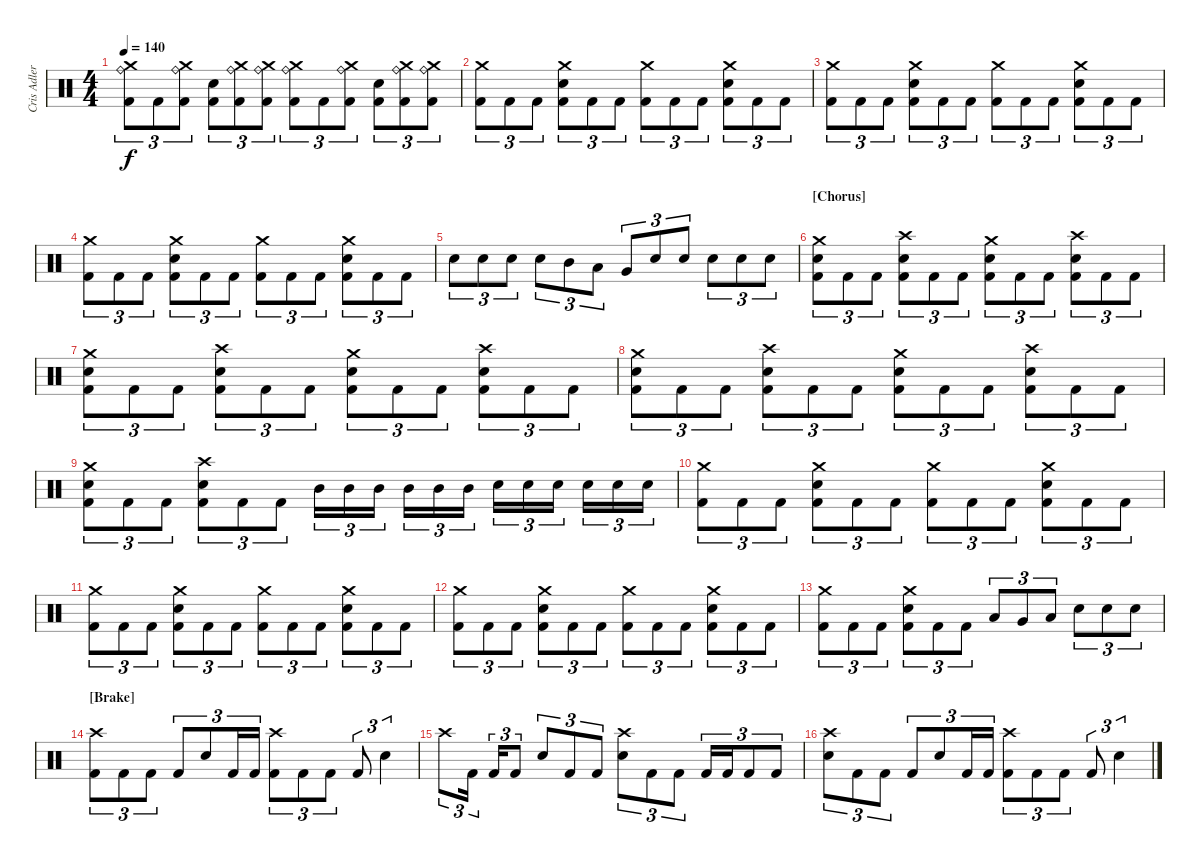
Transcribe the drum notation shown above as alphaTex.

\track ("Cris Adler" "Cris Adler") {instrument percussion}
\staff {score}
\articulation defaults
\ts (4 4)
\tempo 140
\clef neutral
\ks c
("Crash medium (hit)" "Ride (bell)" "Kick (hit) 2").8{tu (3 2) dy f} "Kick (hit) 2".8{tu (3 2)} ("Crash medium (hit)" "Ride (bell)" "Kick (hit) 2").8{tu (3 2)} ("Electric Snare (hit)" "Kick (hit) 2").8{tu (3 2)} ("Crash medium (hit)" "Ride (bell)" "Kick (hit) 2").8{tu (3 2)} ("Crash medium (hit)" "Ride (bell)" "Kick (hit) 2").8{tu (3 2)} ("Crash medium (hit)" "Ride (bell)" "Kick (hit) 2").8{tu (3 2)} "Kick (hit) 2".8{tu (3 2)} ("Crash medium (hit)" "Ride (bell)" "Kick (hit) 2").8{tu (3 2)} ("Electric Snare (hit)" "Kick (hit) 2").8{tu (3 2)} ("Crash medium (hit)" "Ride (bell)" "Kick (hit) 2").8{tu (3 2)} ("Crash medium (hit)" "Ride (bell)" "Kick (hit) 2").8{tu (3 2)} |
("Crash medium (hit)" "Kick (hit) 2").8{tu (3 2)} "Kick (hit) 2".8{tu (3 2)} "Kick (hit) 2".8{tu (3 2)} ("Crash medium (hit)" "Electric Snare (hit)" "Kick (hit) 2").8{tu (3 2)} "Kick (hit) 2".8{tu (3 2)} "Kick (hit) 2".8{tu (3 2)} ("Crash medium (hit)" "Kick (hit) 2").8{tu (3 2)} "Kick (hit) 2".8{tu (3 2)} "Kick (hit) 2".8{tu (3 2)} ("Crash medium (hit)" "Electric Snare (hit)" "Kick (hit) 2").8{tu (3 2)} "Kick (hit) 2".8{tu (3 2)} "Kick (hit) 2".8{tu (3 2)} |
("Crash medium (hit)" "Kick (hit) 2").8{tu (3 2)} "Kick (hit) 2".8{tu (3 2)} "Kick (hit) 2".8{tu (3 2)} ("Crash medium (hit)" "Electric Snare (hit)" "Kick (hit) 2").8{tu (3 2)} "Kick (hit) 2".8{tu (3 2)} "Kick (hit) 2".8{tu (3 2)} ("Crash medium (hit)" "Kick (hit) 2").8{tu (3 2)} "Kick (hit) 2".8{tu (3 2)} "Kick (hit) 2".8{tu (3 2)} ("Crash medium (hit)" "Electric Snare (hit)" "Kick (hit) 2").8{tu (3 2)} "Kick (hit) 2".8{tu (3 2)} "Kick (hit) 2".8{tu (3 2)} |
("Crash medium (hit)" "Kick (hit) 2").8{tu (3 2)} "Kick (hit) 2".8{tu (3 2)} "Kick (hit) 2".8{tu (3 2)} ("Crash medium (hit)" "Electric Snare (hit)" "Kick (hit) 2").8{tu (3 2)} "Kick (hit) 2".8{tu (3 2)} "Kick (hit) 2".8{tu (3 2)} ("Crash medium (hit)" "Kick (hit) 2").8{tu (3 2)} "Kick (hit) 2".8{tu (3 2)} "Kick (hit) 2".8{tu (3 2)} ("Crash medium (hit)" "Electric Snare (hit)" "Kick (hit) 2").8{tu (3 2)} "Kick (hit) 2".8{tu (3 2)} "Kick (hit) 2".8{tu (3 2)} |
"Electric Snare (hit)".8{tu (3 2)} "Electric Snare (hit)".8{tu (3 2)} "Electric Snare (hit)".8{tu (3 2)} "Electric Snare (hit)".8{tu (3 2)} "Mid Tom (hit)".8{tu (3 2)} "Low Tom (hit)".8{tu (3 2)} "Very Low Tom (hit)".8{tu (3 2)} "Electric Snare (hit)".8{tu (3 2)} "Electric Snare (hit)".8{tu (3 2)} "Electric Snare (hit)".8{tu (3 2)} "Electric Snare (hit)".8{tu (3 2)} "Electric Snare (hit)".8{tu (3 2)} |
\section ("" "[Chorus]")
("Crash medium (hit)" "Electric Snare (hit)" "Kick (hit) 2").8{tu (3 2)} "Kick (hit) 2".8{tu (3 2)} "Kick (hit) 2".8{tu (3 2)} ("Crash high (hit)" "Electric Snare (hit)" "Kick (hit) 2").8{tu (3 2)} "Kick (hit) 2".8{tu (3 2)} "Kick (hit) 2".8{tu (3 2)} ("Crash medium (hit)" "Electric Snare (hit)" "Kick (hit) 2").8{tu (3 2)} "Kick (hit) 2".8{tu (3 2)} "Kick (hit) 2".8{tu (3 2)} ("Crash high (hit)" "Electric Snare (hit)" "Kick (hit) 2").8{tu (3 2)} "Kick (hit) 2".8{tu (3 2)} "Kick (hit) 2".8{tu (3 2)} |
("Crash medium (hit)" "Electric Snare (hit)" "Kick (hit) 2").8{tu (3 2)} "Kick (hit) 2".8{tu (3 2)} "Kick (hit) 2".8{tu (3 2)} ("Crash high (hit)" "Electric Snare (hit)" "Kick (hit) 2").8{tu (3 2)} "Kick (hit) 2".8{tu (3 2)} "Kick (hit) 2".8{tu (3 2)} ("Crash medium (hit)" "Electric Snare (hit)" "Kick (hit) 2").8{tu (3 2)} "Kick (hit) 2".8{tu (3 2)} "Kick (hit) 2".8{tu (3 2)} ("Crash high (hit)" "Electric Snare (hit)" "Kick (hit) 2").8{tu (3 2)} "Kick (hit) 2".8{tu (3 2)} "Kick (hit) 2".8{tu (3 2)} |
("Crash medium (hit)" "Electric Snare (hit)" "Kick (hit) 2").8{tu (3 2)} "Kick (hit) 2".8{tu (3 2)} "Kick (hit) 2".8{tu (3 2)} ("Crash high (hit)" "Electric Snare (hit)" "Kick (hit) 2").8{tu (3 2)} "Kick (hit) 2".8{tu (3 2)} "Kick (hit) 2".8{tu (3 2)} ("Crash medium (hit)" "Electric Snare (hit)" "Kick (hit) 2").8{tu (3 2)} "Kick (hit) 2".8{tu (3 2)} "Kick (hit) 2".8{tu (3 2)} ("Crash high (hit)" "Electric Snare (hit)" "Kick (hit) 2").8{tu (3 2)} "Kick (hit) 2".8{tu (3 2)} "Kick (hit) 2".8{tu (3 2)} |
("Crash medium (hit)" "Electric Snare (hit)" "Kick (hit) 2").8{tu (3 2)} "Kick (hit) 2".8{tu (3 2)} "Kick (hit) 2".8{tu (3 2)} ("Crash high (hit)" "Electric Snare (hit)" "Kick (hit) 2").8{tu (3 2)} "Kick (hit) 2".8{tu (3 2)} "Kick (hit) 2".8{tu (3 2)} "Mid Tom (hit)".16{tu (3 2)} "Mid Tom (hit)".16{tu (3 2)} "Mid Tom (hit)".16{tu (3 2)} "Mid Tom (hit)".16{tu (3 2)} "Mid Tom (hit)".16{tu (3 2)} "Mid Tom (hit)".16{tu (3 2)} "Electric Snare (hit)".16{tu (3 2)} "Electric Snare (hit)".16{tu (3 2)} "Electric Snare (hit)".16{tu (3 2)} "Electric Snare (hit)".16{tu (3 2)} "Electric Snare (hit)".16{tu (3 2)} "Electric Snare (hit)".16{tu (3 2)} |
("Crash medium (hit)" "Kick (hit) 2").8{tu (3 2)} "Kick (hit) 2".8{tu (3 2)} "Kick (hit) 2".8{tu (3 2)} ("Crash medium (hit)" "Electric Snare (hit)" "Kick (hit) 2").8{tu (3 2)} "Kick (hit) 2".8{tu (3 2)} "Kick (hit) 2".8{tu (3 2)} ("Crash medium (hit)" "Kick (hit) 2").8{tu (3 2)} "Kick (hit) 2".8{tu (3 2)} "Kick (hit) 2".8{tu (3 2)} ("Crash medium (hit)" "Electric Snare (hit)" "Kick (hit) 2").8{tu (3 2)} "Kick (hit) 2".8{tu (3 2)} "Kick (hit) 2".8{tu (3 2)} |
("Crash medium (hit)" "Kick (hit) 2").8{tu (3 2)} "Kick (hit) 2".8{tu (3 2)} "Kick (hit) 2".8{tu (3 2)} ("Crash medium (hit)" "Electric Snare (hit)" "Kick (hit) 2").8{tu (3 2)} "Kick (hit) 2".8{tu (3 2)} "Kick (hit) 2".8{tu (3 2)} ("Crash medium (hit)" "Kick (hit) 2").8{tu (3 2)} "Kick (hit) 2".8{tu (3 2)} "Kick (hit) 2".8{tu (3 2)} ("Crash medium (hit)" "Electric Snare (hit)" "Kick (hit) 2").8{tu (3 2)} "Kick (hit) 2".8{tu (3 2)} "Kick (hit) 2".8{tu (3 2)} |
("Crash medium (hit)" "Kick (hit) 2").8{tu (3 2)} "Kick (hit) 2".8{tu (3 2)} "Kick (hit) 2".8{tu (3 2)} ("Crash medium (hit)" "Electric Snare (hit)" "Kick (hit) 2").8{tu (3 2)} "Kick (hit) 2".8{tu (3 2)} "Kick (hit) 2".8{tu (3 2)} ("Crash medium (hit)" "Kick (hit) 2").8{tu (3 2)} "Kick (hit) 2".8{tu (3 2)} "Kick (hit) 2".8{tu (3 2)} ("Crash medium (hit)" "Electric Snare (hit)" "Kick (hit) 2").8{tu (3 2)} "Kick (hit) 2".8{tu (3 2)} "Kick (hit) 2".8{tu (3 2)} |
("Crash medium (hit)" "Kick (hit) 2").8{tu (3 2)} "Kick (hit) 2".8{tu (3 2)} "Kick (hit) 2".8{tu (3 2)} ("Crash medium (hit)" "Electric Snare (hit)" "Kick (hit) 2").8{tu (3 2)} "Kick (hit) 2".8{tu (3 2)} "Kick (hit) 2".8{tu (3 2)} "Low Floor Tom (hit)".8{tu (3 2)} "Very Low Tom (hit)".8{tu (3 2)} "Low Tom (hit)".8{tu (3 2)} "Electric Snare (hit)".8{tu (3 2)} "Electric Snare (hit)".8{tu (3 2)} "Electric Snare (hit)".8{tu (3 2)} |
\section ("" "[Brake]")
("Crash high (hit)" "Kick (hit) 2").8{tu (3 2)} "Kick (hit) 2".8{tu (3 2)} "Kick (hit) 2".8{tu (3 2)} "Kick (hit) 2".8{tu (3 2)} "Electric Snare (hit)".8{tu (3 2)} "Kick (hit) 2".16{tu (3 2)} "Kick (hit) 2".16{tu (3 2)} ("Crash high (hit)" "Kick (hit) 2").8{tu (3 2)} "Kick (hit) 2".8{tu (3 2)} "Kick (hit) 2".8{tu (3 2)} "Kick (hit) 2".8{tu (3 2)} "Electric Snare (hit)".4{tu (3 2)} |
"Crash high (hit)".8{tu (3 2)} "Kick (hit) 2".16{tu (3 2)} "Kick (hit) 2".16{tu (3 2)} "Kick (hit) 2".8{tu (3 2)} "Electric Snare (hit)".8{tu (3 2)} "Kick (hit) 2".8{tu (3 2)} "Kick (hit) 2".8{tu (3 2)} ("Crash high (hit)" "Electric Snare (hit)").8{tu (3 2)} "Kick (hit) 2".8{tu (3 2)} "Kick (hit) 2".8{tu (3 2)} "Kick (hit) 2".16{tu (3 2)} "Kick (hit) 2".16{tu (3 2)} "Kick (hit) 2".8{tu (3 2)} "Kick (hit) 2".8{tu (3 2)} |
("Crash high (hit)" "Electric Snare (hit)").8{tu (3 2)} "Kick (hit) 2".8{tu (3 2)} "Kick (hit) 2".8{tu (3 2)} "Kick (hit) 2".8{tu (3 2)} "Electric Snare (hit)".8{tu (3 2)} "Kick (hit) 2".16{tu (3 2)} "Kick (hit) 2".16{tu (3 2)} ("Crash high (hit)" "Kick (hit) 2").8{tu (3 2)} "Kick (hit) 2".8{tu (3 2)} "Kick (hit) 2".8{tu (3 2)} "Kick (hit) 2".8{tu (3 2)} "Electric Snare (hit)".4{tu (3 2)}
